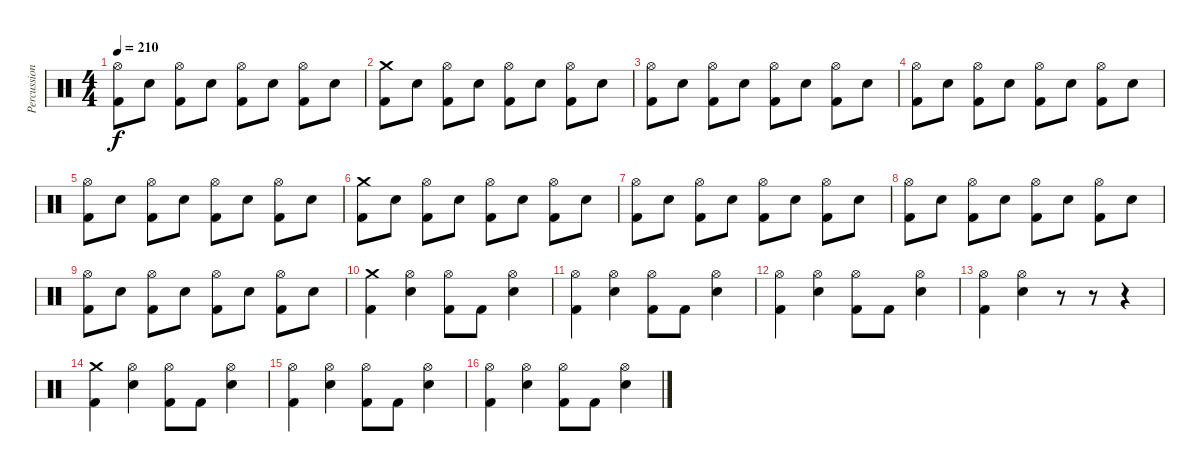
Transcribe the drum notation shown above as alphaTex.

\track ("Percussion" "Percussion") {instrument percussion}
\staff {score}
\articulation defaults
\ts (4 4)
\tempo 210
\clef neutral
\ks c
("Hi-Hat (open)" "Kick (hit) 2").8{dy f} "Electric Snare (hit)".8 ("Hi-Hat (open)" "Kick (hit) 2").8 "Electric Snare (hit)".8 ("Hi-Hat (open)" "Kick (hit) 2").8 "Electric Snare (hit)".8 ("Hi-Hat (open)" "Kick (hit) 2").8 "Electric Snare (hit)".8 |
("Crash medium (hit)" "Kick (hit) 2").8 "Electric Snare (hit)".8 ("Hi-Hat (open)" "Kick (hit) 2").8 "Electric Snare (hit)".8 ("Hi-Hat (open)" "Kick (hit) 2").8 "Electric Snare (hit)".8 ("Hi-Hat (open)" "Kick (hit) 2").8 "Electric Snare (hit)".8 |
("Hi-Hat (open)" "Kick (hit) 2").8 "Electric Snare (hit)".8 ("Hi-Hat (open)" "Kick (hit) 2").8 "Electric Snare (hit)".8 ("Hi-Hat (open)" "Kick (hit) 2").8 "Electric Snare (hit)".8 ("Hi-Hat (open)" "Kick (hit) 2").8 "Electric Snare (hit)".8 |
("Hi-Hat (open)" "Kick (hit) 2").8 "Electric Snare (hit)".8 ("Hi-Hat (open)" "Kick (hit) 2").8 "Electric Snare (hit)".8 ("Hi-Hat (open)" "Kick (hit) 2").8 "Electric Snare (hit)".8 ("Hi-Hat (open)" "Kick (hit) 2").8 "Electric Snare (hit)".8 |
("Hi-Hat (open)" "Kick (hit) 2").8 "Electric Snare (hit)".8 ("Hi-Hat (open)" "Kick (hit) 2").8 "Electric Snare (hit)".8 ("Hi-Hat (open)" "Kick (hit) 2").8 "Electric Snare (hit)".8 ("Hi-Hat (open)" "Kick (hit) 2").8 "Electric Snare (hit)".8 |
("Crash medium (hit)" "Kick (hit) 2").8 "Electric Snare (hit)".8 ("Hi-Hat (open)" "Kick (hit) 2").8 "Electric Snare (hit)".8 ("Hi-Hat (open)" "Kick (hit) 2").8 "Electric Snare (hit)".8 ("Hi-Hat (open)" "Kick (hit) 2").8 "Electric Snare (hit)".8 |
("Hi-Hat (open)" "Kick (hit) 2").8 "Electric Snare (hit)".8 ("Hi-Hat (open)" "Kick (hit) 2").8 "Electric Snare (hit)".8 ("Hi-Hat (open)" "Kick (hit) 2").8 "Electric Snare (hit)".8 ("Hi-Hat (open)" "Kick (hit) 2").8 "Electric Snare (hit)".8 |
("Hi-Hat (open)" "Kick (hit) 2").8 "Electric Snare (hit)".8 ("Hi-Hat (open)" "Kick (hit) 2").8 "Electric Snare (hit)".8 ("Hi-Hat (open)" "Kick (hit) 2").8 "Electric Snare (hit)".8 ("Hi-Hat (open)" "Kick (hit) 2").8 "Electric Snare (hit)".8 |
("Hi-Hat (open)" "Kick (hit) 2").8 "Electric Snare (hit)".8 ("Hi-Hat (open)" "Kick (hit) 2").8 "Electric Snare (hit)".8 ("Hi-Hat (open)" "Kick (hit) 2").8 "Electric Snare (hit)".8 ("Hi-Hat (open)" "Kick (hit) 2").8 "Electric Snare (hit)".8 |
("Crash medium (hit)" "Kick (hit) 2").4 ("Hi-Hat (open)" "Electric Snare (hit)").4 ("Hi-Hat (open)" "Kick (hit) 2").8 "Kick (hit) 2".8 ("Hi-Hat (open)" "Electric Snare (hit)").4 |
("Hi-Hat (open)" "Kick (hit) 2").4 ("Hi-Hat (open)" "Electric Snare (hit)").4 ("Hi-Hat (open)" "Kick (hit) 2").8 "Kick (hit) 2".8 ("Hi-Hat (open)" "Electric Snare (hit)").4 |
("Hi-Hat (open)" "Kick (hit) 2").4 ("Hi-Hat (open)" "Electric Snare (hit)").4 ("Hi-Hat (open)" "Kick (hit) 2").8 "Kick (hit) 2".8 ("Hi-Hat (open)" "Electric Snare (hit)").4 |
("Hi-Hat (open)" "Kick (hit) 2").4 ("Hi-Hat (open)" "Electric Snare (hit)").4 r.8 r.8 r.4 |
("Crash medium (hit)" "Kick (hit) 2").4 ("Hi-Hat (open)" "Electric Snare (hit)").4 ("Hi-Hat (open)" "Kick (hit) 2").8 "Kick (hit) 2".8 ("Hi-Hat (open)" "Electric Snare (hit)").4 |
("Hi-Hat (open)" "Kick (hit) 2").4 ("Hi-Hat (open)" "Electric Snare (hit)").4 ("Hi-Hat (open)" "Kick (hit) 2").8 "Kick (hit) 2".8 ("Hi-Hat (open)" "Electric Snare (hit)").4 |
("Hi-Hat (open)" "Kick (hit) 2").4 ("Hi-Hat (open)" "Electric Snare (hit)").4 ("Hi-Hat (open)" "Kick (hit) 2").8 "Kick (hit) 2".8 ("Hi-Hat (open)" "Electric Snare (hit)").4
